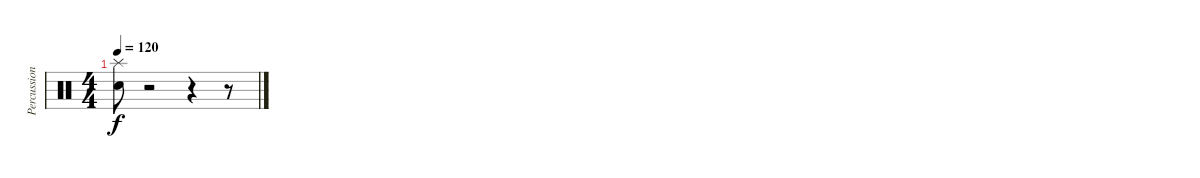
\track ("Percussion" "Percussion") {instrument percussion}
\staff {score}
\articulation defaults
\ts (4 4)
\tempo 120
\clef neutral
\ks c
("Splash (hit)" "Electric Snare (hit)").8{dy f} r.2 r.4 r.8
